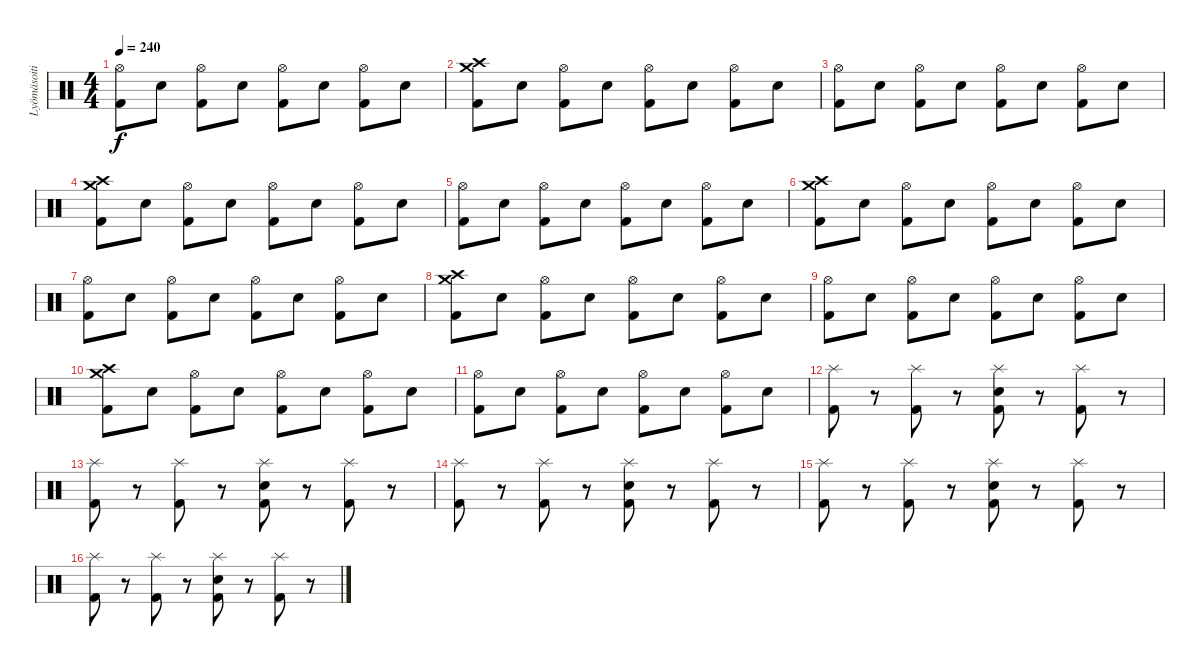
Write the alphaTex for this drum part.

\track ("Lyömäsoitin" "Lyömäsoiti") {instrument percussion}
\staff {score}
\articulation defaults
\ts (4 4)
\tempo 240
\clef neutral
\ks c
("Hi-Hat (open)" "Kick (hit) 2").8{dy f} "Snare (hit) 2".8 ("Hi-Hat (open)" "Kick (hit) 2").8 "Snare (hit) 2".8 ("Hi-Hat (open)" "Kick (hit) 2").8 "Snare (hit) 2".8 ("Hi-Hat (open)" "Kick (hit) 2").8 "Snare (hit) 2".8 |
("Crash high (hit)" "Crash medium (hit)" "Kick (hit) 2").8 "Snare (hit) 2".8 ("Hi-Hat (open)" "Kick (hit) 2").8 "Snare (hit) 2".8 ("Hi-Hat (open)" "Kick (hit) 2").8 "Snare (hit) 2".8 ("Hi-Hat (open)" "Kick (hit) 2").8 "Snare (hit) 2".8 |
("Hi-Hat (open)" "Kick (hit) 2").8 "Snare (hit) 2".8 ("Hi-Hat (open)" "Kick (hit) 2").8 "Snare (hit) 2".8 ("Hi-Hat (open)" "Kick (hit) 2").8 "Snare (hit) 2".8 ("Hi-Hat (open)" "Kick (hit) 2").8 "Snare (hit) 2".8 |
("Crash high (hit)" "Crash medium (hit)" "Kick (hit) 2").8 "Snare (hit) 2".8 ("Hi-Hat (open)" "Kick (hit) 2").8 "Snare (hit) 2".8 ("Hi-Hat (open)" "Kick (hit) 2").8 "Snare (hit) 2".8 ("Hi-Hat (open)" "Kick (hit) 2").8 "Snare (hit) 2".8 |
("Hi-Hat (open)" "Kick (hit) 2").8 "Snare (hit) 2".8 ("Hi-Hat (open)" "Kick (hit) 2").8 "Snare (hit) 2".8 ("Hi-Hat (open)" "Kick (hit) 2").8 "Snare (hit) 2".8 ("Hi-Hat (open)" "Kick (hit) 2").8 "Snare (hit) 2".8 |
("Crash high (hit)" "Crash medium (hit)" "Kick (hit) 2").8 "Snare (hit) 2".8 ("Hi-Hat (open)" "Kick (hit) 2").8 "Snare (hit) 2".8 ("Hi-Hat (open)" "Kick (hit) 2").8 "Snare (hit) 2".8 ("Hi-Hat (open)" "Kick (hit) 2").8 "Snare (hit) 2".8 |
("Hi-Hat (open)" "Kick (hit) 2").8 "Snare (hit) 2".8 ("Hi-Hat (open)" "Kick (hit) 2").8 "Snare (hit) 2".8 ("Hi-Hat (open)" "Kick (hit) 2").8 "Snare (hit) 2".8 ("Hi-Hat (open)" "Kick (hit) 2").8 "Snare (hit) 2".8 |
("Crash high (hit)" "Crash medium (hit)" "Kick (hit) 2").8 "Snare (hit) 2".8 ("Hi-Hat (open)" "Kick (hit) 2").8 "Snare (hit) 2".8 ("Hi-Hat (open)" "Kick (hit) 2").8 "Snare (hit) 2".8 ("Hi-Hat (open)" "Kick (hit) 2").8 "Snare (hit) 2".8 |
("Hi-Hat (open)" "Kick (hit) 2").8 "Snare (hit) 2".8 ("Hi-Hat (open)" "Kick (hit) 2").8 "Snare (hit) 2".8 ("Hi-Hat (open)" "Kick (hit) 2").8 "Snare (hit) 2".8 ("Hi-Hat (open)" "Kick (hit) 2").8 "Snare (hit) 2".8 |
("Crash high (hit)" "Crash medium (hit)" "Kick (hit) 2").8 "Snare (hit) 2".8 ("Hi-Hat (open)" "Kick (hit) 2").8 "Snare (hit) 2".8 ("Hi-Hat (open)" "Kick (hit) 2").8 "Snare (hit) 2".8 ("Hi-Hat (open)" "Kick (hit) 2").8 "Snare (hit) 2".8 |
("Hi-Hat (open)" "Kick (hit) 2").8 "Snare (hit) 2".8 ("Hi-Hat (open)" "Kick (hit) 2").8 "Snare (hit) 2".8 ("Hi-Hat (open)" "Kick (hit) 2").8 "Snare (hit) 2".8 ("Hi-Hat (open)" "Kick (hit) 2").8 "Snare (hit) 2".8 |
("Splash (hit)" "Kick (hit) 2").8 r.8 ("Splash (hit)" "Kick (hit) 2").8 r.8 ("Splash (hit)" "Snare (hit) 2" "Kick (hit) 2").8 r.8 ("Splash (hit)" "Kick (hit) 2").8 r.8 |
("Splash (hit)" "Kick (hit) 2").8 r.8 ("Splash (hit)" "Kick (hit) 2").8 r.8 ("Splash (hit)" "Snare (hit) 2" "Kick (hit) 2").8 r.8 ("Splash (hit)" "Kick (hit) 2").8 r.8 |
("Splash (hit)" "Kick (hit) 2").8 r.8 ("Splash (hit)" "Kick (hit) 2").8 r.8 ("Splash (hit)" "Snare (hit) 2" "Kick (hit) 2").8 r.8 ("Splash (hit)" "Kick (hit) 2").8 r.8 |
("Splash (hit)" "Kick (hit) 2").8 r.8 ("Splash (hit)" "Kick (hit) 2").8 r.8 ("Splash (hit)" "Snare (hit) 2" "Kick (hit) 2").8 r.8 ("Splash (hit)" "Kick (hit) 2").8 r.8 |
("Splash (hit)" "Kick (hit) 2").8 r.8 ("Splash (hit)" "Kick (hit) 2").8 r.8 ("Splash (hit)" "Snare (hit) 2" "Kick (hit) 2").8 r.8 ("Splash (hit)" "Kick (hit) 2").8 r.8
